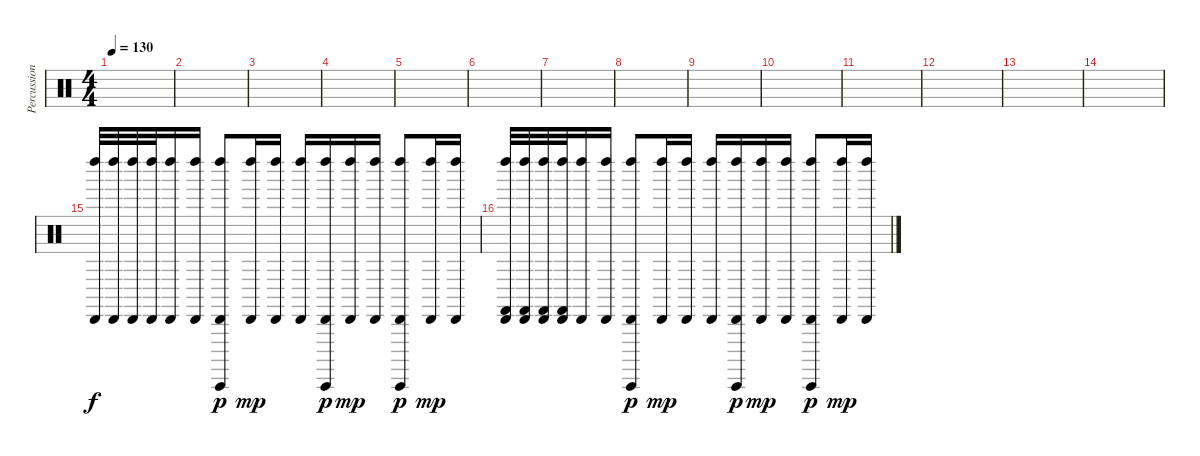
\track ("Percussion" "Percussion") {instrument percussion}
\staff {score}
\articulation defaults
\ts (4 4)
\tempo 130
\clef neutral
\ks c
|
|
|
|
|
|
|
|
|
|
|
|
|
|
("Cabasa (hit)" "Left Maraca (hit)").32 ("Cabasa (hit)" "Left Maraca (hit)").32 ("Cabasa (hit)" "Left Maraca (hit)").32 ("Cabasa (hit)" "Left Maraca (hit)").32 ("Cabasa (hit)" "Left Maraca (hit)").16 ("Cabasa (hit)" "Left Maraca (hit)").16 ("Cabasa (hit)" "Left Maraca (hit)" "Guiro (hit)").8{dy p} ("Cabasa (hit)" "Left Maraca (hit)").16{dy mp} ("Cabasa (hit)" "Left Maraca (hit)").16 ("Cabasa (hit)" "Left Maraca (hit)").16 ("Cabasa (hit)" "Left Maraca (hit)" "Guiro (hit)").16{dy p} ("Cabasa (hit)" "Left Maraca (hit)").16{dy mp} ("Cabasa (hit)" "Left Maraca (hit)").16 ("Cabasa (hit)" "Left Maraca (hit)" "Guiro (hit)").8{dy p} ("Cabasa (hit)" "Left Maraca (hit)").16{dy mp} ("Cabasa (hit)" "Left Maraca (hit)").16 |
("Cabasa (hit)" "Left Maraca (hit)" "Castanets (hit)").32 ("Cabasa (hit)" "Left Maraca (hit)" "Castanets (hit)").32 ("Cabasa (hit)" "Left Maraca (hit)" "Castanets (hit)").32 ("Cabasa (hit)" "Left Maraca (hit)" "Castanets (hit)").32 ("Cabasa (hit)" "Left Maraca (hit)").16 ("Cabasa (hit)" "Left Maraca (hit)").16 ("Cabasa (hit)" "Left Maraca (hit)" "Guiro (hit)").8{dy p} ("Cabasa (hit)" "Left Maraca (hit)").16{dy mp} ("Cabasa (hit)" "Left Maraca (hit)").16 ("Cabasa (hit)" "Left Maraca (hit)").16 ("Cabasa (hit)" "Left Maraca (hit)" "Guiro (hit)").16{dy p} ("Cabasa (hit)" "Left Maraca (hit)").16{dy mp} ("Cabasa (hit)" "Left Maraca (hit)").16 ("Cabasa (hit)" "Left Maraca (hit)" "Guiro (hit)").8{dy p} ("Cabasa (hit)" "Left Maraca (hit)").16{dy mp} ("Cabasa (hit)" "Left Maraca (hit)").16
